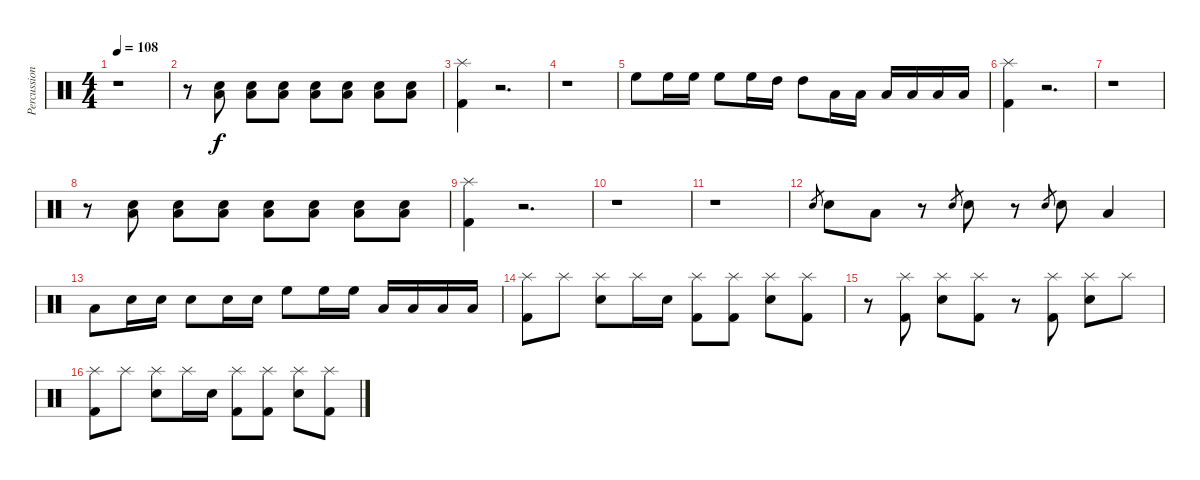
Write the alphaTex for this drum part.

\track ("Percussion" "Percussion") {instrument percussion}
\staff {score}
\articulation defaults
\ts (4 4)
\tempo 108
\clef neutral
\ks c
r.1{dy f} |
r.8 ("Snare (hit) 2" "Low Tom (hit)").8 ("Snare (hit) 2" "Low Tom (hit)").8 ("Snare (hit) 2" "Low Tom (hit)").8 ("Snare (hit) 2" "Low Tom (hit)").8 ("Snare (hit) 2" "Low Tom (hit)").8 ("Snare (hit) 2" "Low Tom (hit)").8 ("Snare (hit) 2" "Low Tom (hit)").8 |
("Kick (hit) 2" "Splash (hit)").4 r.2{d} |
r.1 |
"High Floor Tom (hit)".8 "High Floor Tom (hit)".16 "High Floor Tom (hit)".16 "High Floor Tom (hit)".8 "High Floor Tom (hit)".16 "High Tom (hit)".16 "High Tom (hit)".8 "Low Tom (hit)".16 "Low Tom (hit)".16 "Low Floor Tom (hit)".16 "Low Floor Tom (hit)".16 "Low Floor Tom (hit)".16 "Low Floor Tom (hit)".16 |
("Kick (hit) 2" "Splash (hit)").4 r.2{d} |
r.1 |
r.8 ("Snare (hit) 2" "Low Tom (hit)").8 ("Snare (hit) 2" "Low Tom (hit)").8 ("Snare (hit) 2" "Low Tom (hit)").8 ("Snare (hit) 2" "Low Tom (hit)").8 ("Snare (hit) 2" "Low Tom (hit)").8 ("Snare (hit) 2" "Low Tom (hit)").8 ("Snare (hit) 2" "Low Tom (hit)").8 |
("Kick (hit) 2" "Splash (hit)").4 r.2{d} |
r.1 |
r.1 |
"Snare (hit) 2".8{gr} "Snare (hit) 2".8 "Low Tom (hit)".8 r.8 "Snare (hit) 2".8{gr} "Snare (hit) 2".8 r.8 "Snare (hit) 2".8{gr} "Snare (hit) 2".8 "Low Tom (hit)".4 |
"Low Tom (hit)".8 "Snare (hit) 2".16 "Snare (hit) 2".16 "Snare (hit) 2".8 "Snare (hit) 2".16 "Snare (hit) 2".16 "High Floor Tom (hit)".8 "High Floor Tom (hit)".16 "High Floor Tom (hit)".16 "Low Tom (hit)".16 "Low Tom (hit)".16 "Low Floor Tom (hit)".16 "Low Floor Tom (hit)".16 |
("Kick (hit) 2" "Splash (hit)").8 "Splash (hit)".8 ("Snare (hit) 2" "Splash (hit)").8 "Splash (hit)".16 "Snare (hit) 2".16 ("Kick (hit) 2" "Splash (hit)").8 ("Kick (hit) 2" "Splash (hit)").8 ("Snare (hit) 2" "Splash (hit)").8 ("Kick (hit) 2" "Splash (hit)").8 |
r.8 ("Kick (hit) 2" "Splash (hit)").8 ("Snare (hit) 2" "Splash (hit)").8 ("Kick (hit) 2" "Splash (hit)").8 r.8 ("Kick (hit) 2" "Splash (hit)").8 ("Snare (hit) 2" "Splash (hit)").8 "Splash (hit)".8 |
("Kick (hit) 2" "Splash (hit)").8 "Splash (hit)".8 ("Snare (hit) 2" "Splash (hit)").8 "Splash (hit)".16 "Snare (hit) 2".16 ("Kick (hit) 2" "Splash (hit)").8 ("Kick (hit) 2" "Splash (hit)").8 ("Snare (hit) 2" "Splash (hit)").8 ("Kick (hit) 2" "Splash (hit)").8
